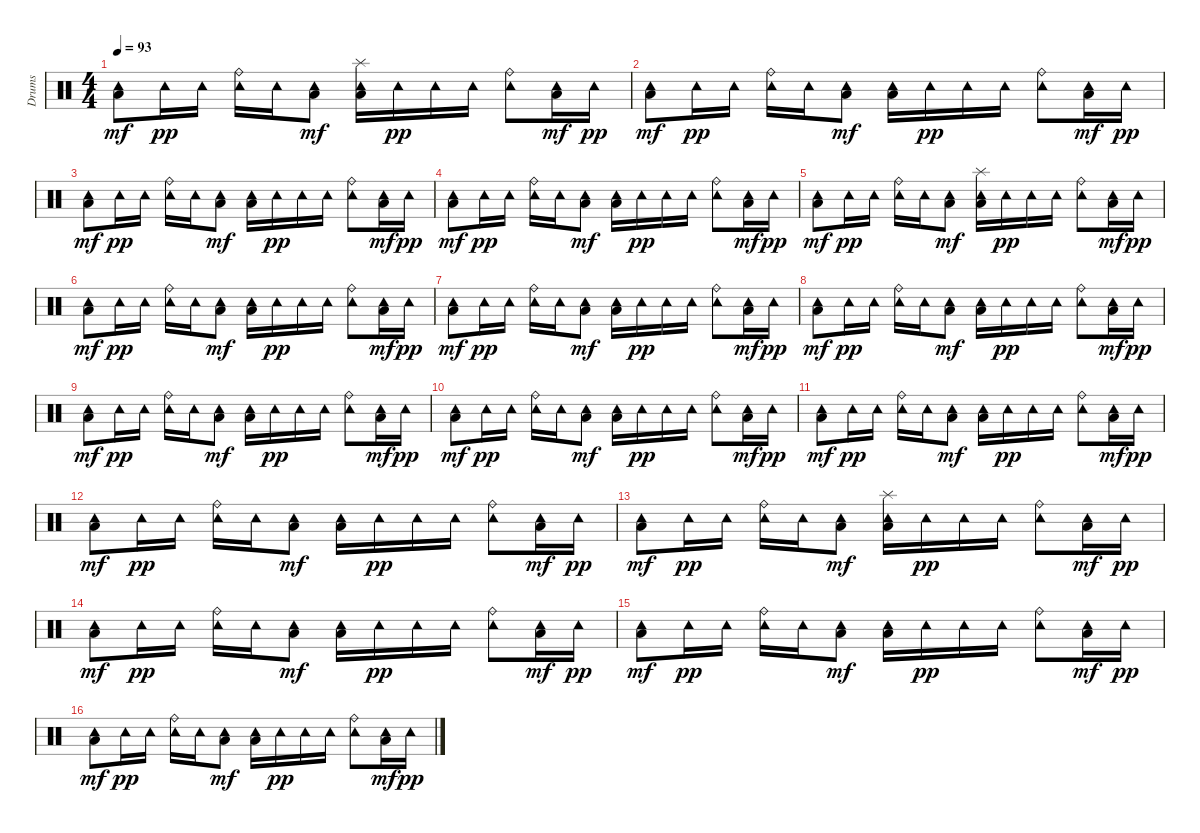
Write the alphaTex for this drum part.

\track ("Drums" "Drums") {instrument percussion}
\staff {score}
\articulation defaults
\ts (4 4)
\tempo 93
\clef neutral
\ks c
("Tambourine (hit)" "Low Floor Tom (hit)").8{dy mf} "Tambourine (hit)".16{dy pp} "Tambourine (hit)".16 ("Tambourine (hit)" "Ride (bell)").16 "Tambourine (hit)".16 ("Tambourine (hit)" "Low Floor Tom (hit)").8{dy mf} ("Tambourine (hit)" "Splash (hit)" "Low Floor Tom (hit)").16 "Tambourine (hit)".16{dy pp} "Tambourine (hit)".16 "Tambourine (hit)".16 ("Tambourine (hit)" "Ride (bell)").8 ("Tambourine (hit)" "Low Floor Tom (hit)").16{dy mf} "Tambourine (hit)".16{dy pp} |
("Tambourine (hit)" "Low Floor Tom (hit)").8{dy mf} "Tambourine (hit)".16{dy pp} "Tambourine (hit)".16 ("Tambourine (hit)" "Ride (bell)").16 "Tambourine (hit)".16 ("Tambourine (hit)" "Low Floor Tom (hit)").8{dy mf} ("Tambourine (hit)" "Low Floor Tom (hit)").16 "Tambourine (hit)".16{dy pp} "Tambourine (hit)".16 "Tambourine (hit)".16 ("Tambourine (hit)" "Ride (bell)").8 ("Tambourine (hit)" "Low Floor Tom (hit)").16{dy mf} "Tambourine (hit)".16{dy pp} |
("Tambourine (hit)" "Low Floor Tom (hit)").8{dy mf} "Tambourine (hit)".16{dy pp} "Tambourine (hit)".16 ("Tambourine (hit)" "Ride (bell)").16 "Tambourine (hit)".16 ("Tambourine (hit)" "Low Floor Tom (hit)").8{dy mf} ("Tambourine (hit)" "Low Floor Tom (hit)").16 "Tambourine (hit)".16{dy pp} "Tambourine (hit)".16 "Tambourine (hit)".16 ("Tambourine (hit)" "Ride (bell)").8 ("Tambourine (hit)" "Low Floor Tom (hit)").16{dy mf} "Tambourine (hit)".16{dy pp} |
("Tambourine (hit)" "Low Floor Tom (hit)").8{dy mf} "Tambourine (hit)".16{dy pp} "Tambourine (hit)".16 ("Tambourine (hit)" "Ride (bell)").16 "Tambourine (hit)".16 ("Tambourine (hit)" "Low Floor Tom (hit)").8{dy mf} ("Tambourine (hit)" "Low Floor Tom (hit)").16 "Tambourine (hit)".16{dy pp} "Tambourine (hit)".16 "Tambourine (hit)".16 ("Tambourine (hit)" "Ride (bell)").8 ("Tambourine (hit)" "Low Floor Tom (hit)").16{dy mf} "Tambourine (hit)".16{dy pp} |
("Tambourine (hit)" "Low Floor Tom (hit)").8{dy mf} "Tambourine (hit)".16{dy pp} "Tambourine (hit)".16 ("Tambourine (hit)" "Ride (bell)").16 "Tambourine (hit)".16 ("Tambourine (hit)" "Low Floor Tom (hit)").8{dy mf} ("Tambourine (hit)" "Splash (hit)" "Low Floor Tom (hit)").16 "Tambourine (hit)".16{dy pp} "Tambourine (hit)".16 "Tambourine (hit)".16 ("Tambourine (hit)" "Ride (bell)").8 ("Tambourine (hit)" "Low Floor Tom (hit)").16{dy mf} "Tambourine (hit)".16{dy pp} |
("Tambourine (hit)" "Low Floor Tom (hit)").8{dy mf} "Tambourine (hit)".16{dy pp} "Tambourine (hit)".16 ("Tambourine (hit)" "Ride (bell)").16 "Tambourine (hit)".16 ("Tambourine (hit)" "Low Floor Tom (hit)").8{dy mf} ("Tambourine (hit)" "Low Floor Tom (hit)").16 "Tambourine (hit)".16{dy pp} "Tambourine (hit)".16 "Tambourine (hit)".16 ("Tambourine (hit)" "Ride (bell)").8 ("Tambourine (hit)" "Low Floor Tom (hit)").16{dy mf} "Tambourine (hit)".16{dy pp} |
("Tambourine (hit)" "Low Floor Tom (hit)").8{dy mf} "Tambourine (hit)".16{dy pp} "Tambourine (hit)".16 ("Tambourine (hit)" "Ride (bell)").16 "Tambourine (hit)".16 ("Tambourine (hit)" "Low Floor Tom (hit)").8{dy mf} ("Tambourine (hit)" "Low Floor Tom (hit)").16 "Tambourine (hit)".16{dy pp} "Tambourine (hit)".16 "Tambourine (hit)".16 ("Tambourine (hit)" "Ride (bell)").8 ("Tambourine (hit)" "Low Floor Tom (hit)").16{dy mf} "Tambourine (hit)".16{dy pp} |
("Tambourine (hit)" "Low Floor Tom (hit)").8{dy mf} "Tambourine (hit)".16{dy pp} "Tambourine (hit)".16 ("Tambourine (hit)" "Ride (bell)").16 "Tambourine (hit)".16 ("Tambourine (hit)" "Low Floor Tom (hit)").8{dy mf} ("Tambourine (hit)" "Low Floor Tom (hit)").16 "Tambourine (hit)".16{dy pp} "Tambourine (hit)".16 "Tambourine (hit)".16 ("Tambourine (hit)" "Ride (bell)").8 ("Tambourine (hit)" "Low Floor Tom (hit)").16{dy mf} "Tambourine (hit)".16{dy pp} |
("Tambourine (hit)" "Low Floor Tom (hit)").8{dy mf} "Tambourine (hit)".16{dy pp} "Tambourine (hit)".16 ("Tambourine (hit)" "Ride (bell)").16 "Tambourine (hit)".16 ("Tambourine (hit)" "Low Floor Tom (hit)").8{dy mf} ("Tambourine (hit)" "Low Floor Tom (hit)").16 "Tambourine (hit)".16{dy pp} "Tambourine (hit)".16 "Tambourine (hit)".16 ("Tambourine (hit)" "Ride (bell)").8 ("Tambourine (hit)" "Low Floor Tom (hit)").16{dy mf} "Tambourine (hit)".16{dy pp} |
("Tambourine (hit)" "Low Floor Tom (hit)").8{dy mf} "Tambourine (hit)".16{dy pp} "Tambourine (hit)".16 ("Tambourine (hit)" "Ride (bell)").16 "Tambourine (hit)".16 ("Tambourine (hit)" "Low Floor Tom (hit)").8{dy mf} ("Tambourine (hit)" "Low Floor Tom (hit)").16 "Tambourine (hit)".16{dy pp} "Tambourine (hit)".16 "Tambourine (hit)".16 ("Tambourine (hit)" "Ride (bell)").8 ("Tambourine (hit)" "Low Floor Tom (hit)").16{dy mf} "Tambourine (hit)".16{dy pp} |
("Tambourine (hit)" "Low Floor Tom (hit)").8{dy mf} "Tambourine (hit)".16{dy pp} "Tambourine (hit)".16 ("Tambourine (hit)" "Ride (bell)").16 "Tambourine (hit)".16 ("Tambourine (hit)" "Low Floor Tom (hit)").8{dy mf} ("Tambourine (hit)" "Low Floor Tom (hit)").16 "Tambourine (hit)".16{dy pp} "Tambourine (hit)".16 "Tambourine (hit)".16 ("Tambourine (hit)" "Ride (bell)").8 ("Tambourine (hit)" "Low Floor Tom (hit)").16{dy mf} "Tambourine (hit)".16{dy pp} |
("Tambourine (hit)" "Low Floor Tom (hit)").8{dy mf} "Tambourine (hit)".16{dy pp} "Tambourine (hit)".16 ("Tambourine (hit)" "Ride (bell)").16 "Tambourine (hit)".16 ("Tambourine (hit)" "Low Floor Tom (hit)").8{dy mf} ("Tambourine (hit)" "Low Floor Tom (hit)").16 "Tambourine (hit)".16{dy pp} "Tambourine (hit)".16 "Tambourine (hit)".16 ("Tambourine (hit)" "Ride (bell)").8 ("Tambourine (hit)" "Low Floor Tom (hit)").16{dy mf} "Tambourine (hit)".16{dy pp} |
("Tambourine (hit)" "Low Floor Tom (hit)").8{dy mf} "Tambourine (hit)".16{dy pp} "Tambourine (hit)".16 ("Tambourine (hit)" "Ride (bell)").16 "Tambourine (hit)".16 ("Tambourine (hit)" "Low Floor Tom (hit)").8{dy mf} ("Tambourine (hit)" "Splash (hit)" "Low Floor Tom (hit)").16 "Tambourine (hit)".16{dy pp} "Tambourine (hit)".16 "Tambourine (hit)".16 ("Tambourine (hit)" "Ride (bell)").8 ("Tambourine (hit)" "Low Floor Tom (hit)").16{dy mf} "Tambourine (hit)".16{dy pp} |
("Tambourine (hit)" "Low Floor Tom (hit)").8{dy mf} "Tambourine (hit)".16{dy pp} "Tambourine (hit)".16 ("Tambourine (hit)" "Ride (bell)").16 "Tambourine (hit)".16 ("Tambourine (hit)" "Low Floor Tom (hit)").8{dy mf} ("Tambourine (hit)" "Low Floor Tom (hit)").16 "Tambourine (hit)".16{dy pp} "Tambourine (hit)".16 "Tambourine (hit)".16 ("Tambourine (hit)" "Ride (bell)").8 ("Tambourine (hit)" "Low Floor Tom (hit)").16{dy mf} "Tambourine (hit)".16{dy pp} |
("Tambourine (hit)" "Low Floor Tom (hit)").8{dy mf} "Tambourine (hit)".16{dy pp} "Tambourine (hit)".16 ("Tambourine (hit)" "Ride (bell)").16 "Tambourine (hit)".16 ("Tambourine (hit)" "Low Floor Tom (hit)").8{dy mf} ("Tambourine (hit)" "Low Floor Tom (hit)").16 "Tambourine (hit)".16{dy pp} "Tambourine (hit)".16 "Tambourine (hit)".16 ("Tambourine (hit)" "Ride (bell)").8 ("Tambourine (hit)" "Low Floor Tom (hit)").16{dy mf} "Tambourine (hit)".16{dy pp} |
("Tambourine (hit)" "Low Floor Tom (hit)").8{dy mf} "Tambourine (hit)".16{dy pp} "Tambourine (hit)".16 ("Tambourine (hit)" "Ride (bell)").16 "Tambourine (hit)".16 ("Tambourine (hit)" "Low Floor Tom (hit)").8{dy mf} ("Tambourine (hit)" "Low Floor Tom (hit)").16 "Tambourine (hit)".16{dy pp} "Tambourine (hit)".16 "Tambourine (hit)".16 ("Tambourine (hit)" "Ride (bell)").8 ("Tambourine (hit)" "Low Floor Tom (hit)").16{dy mf} "Tambourine (hit)".16{dy pp}
